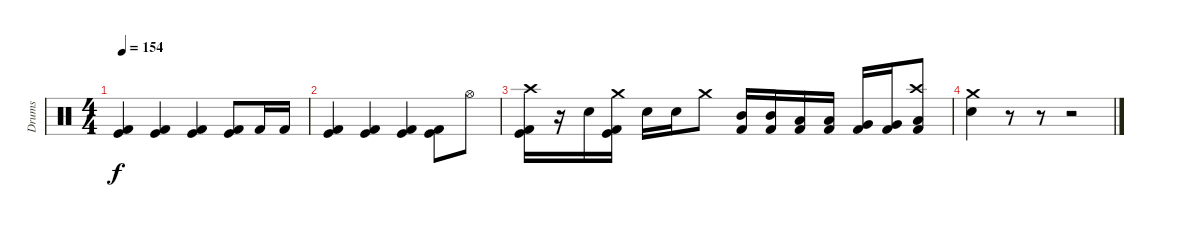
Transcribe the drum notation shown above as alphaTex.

\track ("Drums" "Drums") {instrument percussion}
\staff {score}
\articulation defaults
\ts (4 4)
\tempo 154
\clef neutral
\ks c
("Kick (hit)" "Kick (hit) 2").4{dy f} ("Kick (hit)" "Kick (hit) 2").4 ("Kick (hit)" "Kick (hit) 2").4 ("Kick (hit)" "Kick (hit) 2").8 "Kick (hit) 2".16 "Kick (hit) 2".16 |
("Kick (hit)" "Kick (hit) 2").4 ("Kick (hit)" "Kick (hit) 2").4 ("Kick (hit)" "Kick (hit) 2").4 ("Kick (hit)" "Kick (hit) 2").8 "Hi-Hat (open)".8 |
("Crash high (hit)" "Kick (hit)" "Kick (hit) 2").16 r.16 "Snare (hit) 2".16 ("Crash medium (hit)" "Kick (hit)" "Kick (hit) 2").16 "Snare (hit) 2".16 "Snare (hit) 2".16 "Crash medium (hit)".8 ("Mid Tom (hit)" "Kick (hit) 2").16 ("Mid Tom (hit)" "Kick (hit) 2").16 ("Low Tom (hit)" "Kick (hit) 2").16 ("Low Tom (hit)" "Kick (hit) 2").16 ("Very Low Tom (hit)" "Kick (hit) 2").16 ("Very Low Tom (hit)" "Kick (hit) 2").16 ("Crash high (hit)" "Low Floor Tom (hit)" "Kick (hit) 2").8 |
("Crash medium (hit)" "Snare (hit) 2").4 r.8 r.8 r.2
